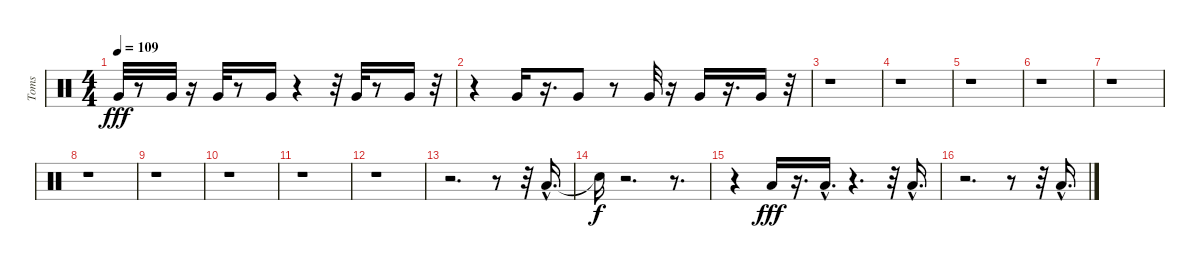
\track ("Toms            " "Toms      ") {instrument percussion}
\staff {score}
\articulation defaults
\ts (4 4)
\tempo 109
\clef neutral
\ks c "Very Low Tom (hit)".32{dy fff}
r.8 "Very Low Tom (hit)".32 r.16 "Very Low Tom (hit)".32 r.8 "Very Low Tom (hit)".16 r.4 r.32 "Very Low Tom (hit)".32 r.8 "Very Low Tom (hit)".16 r.32 |
r.4 "Very Low Tom (hit)".16 r.16{d} "Very Low Tom (hit)".8 r.8 "Very Low Tom (hit)".32 r.16 "Very Low Tom (hit)".16 r.16{d} "Very Low Tom (hit)".16 r.32 |
r.1 |
r.1 |
r.1 |
r.1 |
r.1 |
r.1 |
r.1 |
r.1 |
r.1 |
r.1 |
r.2{d} r.8 r.32 "Low Tom (hit)"{hac}.16{d} |
"Snare (hit)"{t}.16{dy f} r.2{d} r.8{d} |
r.4 "Low Tom (hit)".16{dy fff} r.16{d} "Low Tom (hit)"{hac}.16{d} r.4{d} r.32 "Low Tom (hit)"{hac}.16{d} |
r.2{d} r.8 r.32 "Low Tom (hit)"{hac}.16{d}
